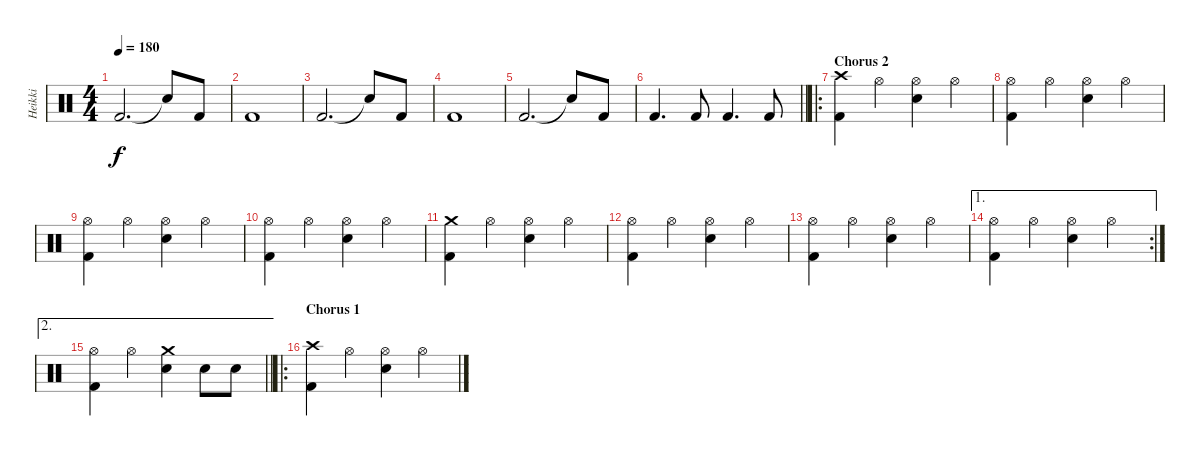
\track ("Heikki" "Heikki") {instrument percussion}
\staff {score}
\articulation defaults
\ts (4 4)
\tempo 180
\clef neutral
\ks c "Kick (hit) 2".2{d dy f} "Snare (hit)"{t}.8 "Kick (hit) 2".8
|
"Kick (hit) 2".1 |
"Kick (hit) 2".2{d} "Snare (hit)"{t}.8 "Kick (hit) 2".8 |
"Kick (hit) 2".1 |
"Kick (hit) 2".2{d} "Snare (hit)"{t}.8 "Kick (hit) 2".8 |
\barLineRight lightlight "Kick (hit) 2".4{d} "Kick (hit) 2".8 "Kick (hit) 2".4{d} "Kick (hit) 2".8
|
\ro
\section ("" "Chorus 2")
("Crash high (hit)" "Kick (hit) 2").4 "Hi-Hat (open)".4 ("Hi-Hat (open)" "Electric Snare (hit)").4 "Hi-Hat (open)".4 |
("Hi-Hat (open)" "Kick (hit) 2").4 "Hi-Hat (open)".4 ("Hi-Hat (open)" "Electric Snare (hit)").4 "Hi-Hat (open)".4 |
("Hi-Hat (open)" "Kick (hit) 2").4 "Hi-Hat (open)".4 ("Hi-Hat (open)" "Electric Snare (hit)").4 "Hi-Hat (open)".4 |
("Hi-Hat (open)" "Kick (hit) 2").4 "Hi-Hat (open)".4 ("Hi-Hat (open)" "Electric Snare (hit)").4 "Hi-Hat (open)".4 |
("Crash medium (hit)" "Kick (hit) 2").4 "Hi-Hat (open)".4 ("Hi-Hat (open)" "Electric Snare (hit)").4 "Hi-Hat (open)".4 |
("Hi-Hat (open)" "Kick (hit) 2").4 "Hi-Hat (open)".4 ("Hi-Hat (open)" "Electric Snare (hit)").4 "Hi-Hat (open)".4 |
("Hi-Hat (open)" "Kick (hit) 2").4 "Hi-Hat (open)".4 ("Hi-Hat (open)" "Electric Snare (hit)").4 "Hi-Hat (open)".4 |
\ae 1
\rc 2
("Hi-Hat (open)" "Kick (hit) 2").4 "Hi-Hat (open)".4 ("Hi-Hat (open)" "Electric Snare (hit)").4 "Hi-Hat (open)".4 |
\ae 2
\barLineRight lightlight
("Hi-Hat (open)" "Kick (hit) 2").4 "Hi-Hat (open)".4 ("Crash medium (hit)" "Electric Snare (hit)").4 "Electric Snare (hit)".8 "Electric Snare (hit)".8 |
\ro
\section ("" "Chorus 1")
("Crash high (hit)" "Kick (hit) 2").4 "Hi-Hat (open)".4 ("Hi-Hat (open)" "Electric Snare (hit)").4 "Hi-Hat (open)".4
